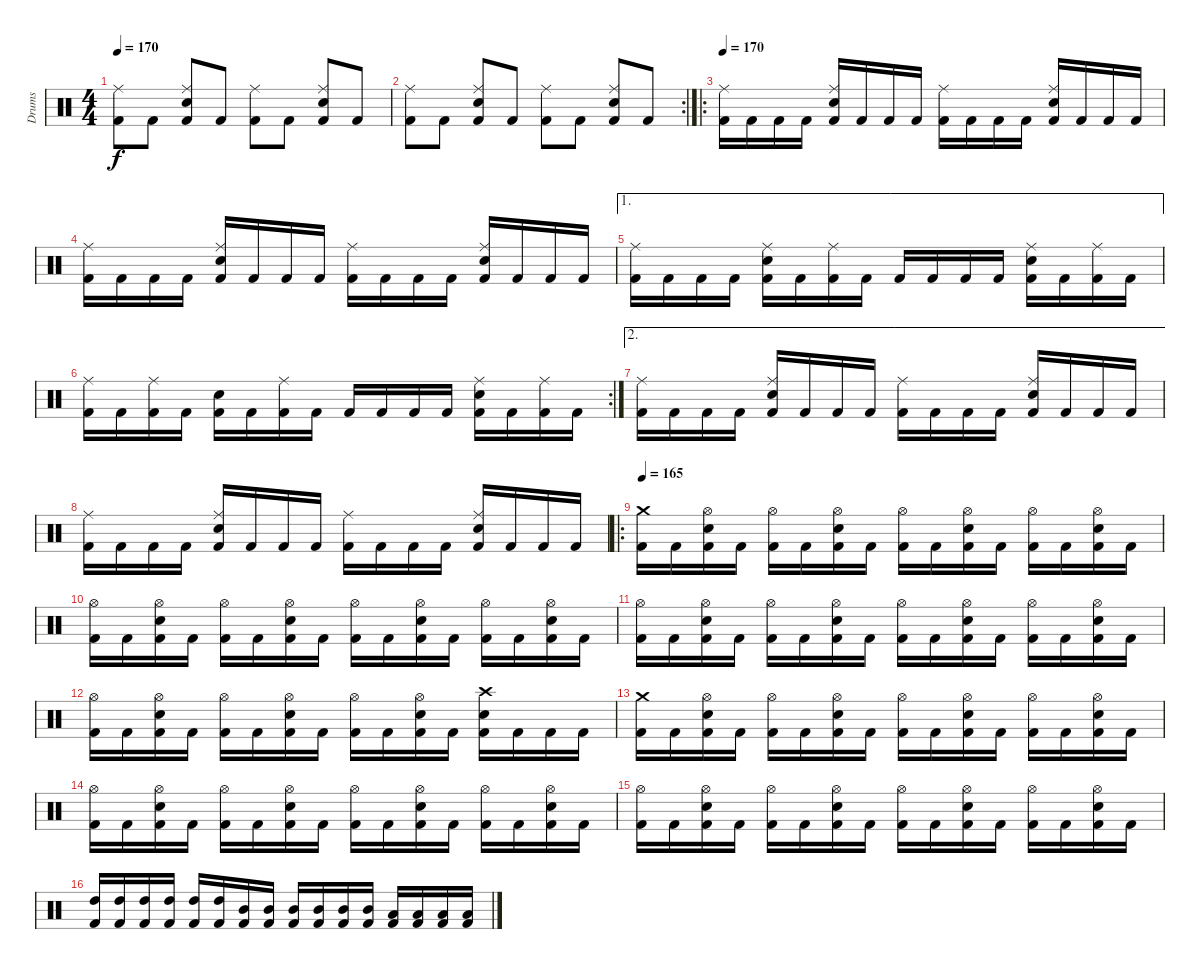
\track ("Drums" "Drums") {instrument percussion}
\staff {score}
\articulation defaults
\ts (4 4)
\tempo 170
\clef neutral
\ks c
("Kick (hit) 2" "Ride (middle)").8{dy f} "Kick (hit) 2".8 ("Kick (hit) 2" "Electric Snare (hit)" "Ride (middle)").8 "Kick (hit) 2".8 ("Kick (hit) 2" "Ride (middle)").8 "Kick (hit) 2".8 ("Kick (hit) 2" "Electric Snare (hit)" "Ride (middle)").8 "Kick (hit) 2".8 |
\rc 2
("Kick (hit) 2" "Ride (middle)").8 "Kick (hit) 2".8 ("Kick (hit) 2" "Electric Snare (hit)" "Ride (middle)").8 "Kick (hit) 2".8 ("Kick (hit) 2" "Ride (middle)").8 "Kick (hit) 2".8 ("Kick (hit) 2" "Electric Snare (hit)" "Ride (middle)").8 "Kick (hit) 2".8 |
\ro
\tempo 170
("Kick (hit) 2" "Ride (middle)").16 "Kick (hit) 2".16 "Kick (hit) 2".16 "Kick (hit) 2".16 ("Kick (hit) 2" "Electric Snare (hit)" "Ride (middle)").16 "Kick (hit) 2".16 "Kick (hit) 2".16 "Kick (hit) 2".16 ("Kick (hit) 2" "Ride (middle)").16 "Kick (hit) 2".16 "Kick (hit) 2".16 "Kick (hit) 2".16 ("Kick (hit) 2" "Electric Snare (hit)" "Ride (middle)").16 "Kick (hit) 2".16 "Kick (hit) 2".16 "Kick (hit) 2".16 |
("Kick (hit) 2" "Ride (middle)").16 "Kick (hit) 2".16 "Kick (hit) 2".16 "Kick (hit) 2".16 ("Kick (hit) 2" "Electric Snare (hit)" "Ride (middle)").16 "Kick (hit) 2".16 "Kick (hit) 2".16 "Kick (hit) 2".16 ("Kick (hit) 2" "Ride (middle)").16 "Kick (hit) 2".16 "Kick (hit) 2".16 "Kick (hit) 2".16 ("Kick (hit) 2" "Electric Snare (hit)" "Ride (middle)").16 "Kick (hit) 2".16 "Kick (hit) 2".16 "Kick (hit) 2".16 |
\ae 1
("Kick (hit) 2" "Ride (middle)").16 "Kick (hit) 2".16 "Kick (hit) 2".16 "Kick (hit) 2".16 ("Kick (hit) 2" "Electric Snare (hit)" "Ride (middle)").16 "Kick (hit) 2".16 ("Kick (hit) 2" "Ride (middle)").16 "Kick (hit) 2".16 "Kick (hit) 2".16 "Kick (hit) 2".16 "Kick (hit) 2".16 "Kick (hit) 2".16 ("Kick (hit) 2" "Electric Snare (hit)" "Ride (middle)").16 "Kick (hit) 2".16 ("Kick (hit) 2" "Ride (middle)").16 "Kick (hit) 2".16 |
\rc 2
("Kick (hit) 2" "Ride (middle)").16 "Kick (hit) 2".16 ("Kick (hit) 2" "Ride (middle)").16 "Kick (hit) 2".16 ("Kick (hit) 2" "Electric Snare (hit)").16 "Kick (hit) 2".16 ("Kick (hit) 2" "Ride (middle)").16 "Kick (hit) 2".16 "Kick (hit) 2".16 "Kick (hit) 2".16 "Kick (hit) 2".16 "Kick (hit) 2".16 ("Kick (hit) 2" "Electric Snare (hit)" "Ride (middle)").16 "Kick (hit) 2".16 ("Kick (hit) 2" "Ride (middle)").16 "Kick (hit) 2".16 |
\ae 2
("Kick (hit) 2" "Ride (middle)").16 "Kick (hit) 2".16 "Kick (hit) 2".16 "Kick (hit) 2".16 ("Kick (hit) 2" "Electric Snare (hit)" "Ride (middle)").16 "Kick (hit) 2".16 "Kick (hit) 2".16 "Kick (hit) 2".16 ("Kick (hit) 2" "Ride (middle)").16 "Kick (hit) 2".16 "Kick (hit) 2".16 "Kick (hit) 2".16 ("Kick (hit) 2" "Electric Snare (hit)" "Ride (middle)").16 "Kick (hit) 2".16 "Kick (hit) 2".16 "Kick (hit) 2".16 |
("Kick (hit) 2" "Ride (middle)").16 "Kick (hit) 2".16 "Kick (hit) 2".16 "Kick (hit) 2".16 ("Kick (hit) 2" "Electric Snare (hit)" "Ride (middle)").16 "Kick (hit) 2".16 "Kick (hit) 2".16 "Kick (hit) 2".16 ("Kick (hit) 2" "Ride (middle)").16 "Kick (hit) 2".16 "Kick (hit) 2".16 "Kick (hit) 2".16 ("Kick (hit) 2" "Electric Snare (hit)" "Ride (middle)").16 "Kick (hit) 2".16 "Kick (hit) 2".16 "Kick (hit) 2".16 |
\ro
\tempo 165
("Kick (hit) 2" "Crash medium (hit)").16 "Kick (hit) 2".16 ("Kick (hit) 2" "Electric Snare (hit)" "Hi-Hat (open)").16 "Kick (hit) 2".16 ("Kick (hit) 2" "Hi-Hat (open)").16 "Kick (hit) 2".16 ("Kick (hit) 2" "Electric Snare (hit)" "Hi-Hat (open)").16 "Kick (hit) 2".16 ("Kick (hit) 2" "Hi-Hat (open)").16 "Kick (hit) 2".16 ("Kick (hit) 2" "Electric Snare (hit)" "Hi-Hat (open)").16 "Kick (hit) 2".16 ("Kick (hit) 2" "Hi-Hat (open)").16 "Kick (hit) 2".16 ("Kick (hit) 2" "Electric Snare (hit)" "Hi-Hat (open)").16 "Kick (hit) 2".16 |
("Kick (hit) 2" "Hi-Hat (open)").16 "Kick (hit) 2".16 ("Kick (hit) 2" "Electric Snare (hit)" "Hi-Hat (open)").16 "Kick (hit) 2".16 ("Kick (hit) 2" "Hi-Hat (open)").16 "Kick (hit) 2".16 ("Kick (hit) 2" "Electric Snare (hit)" "Hi-Hat (open)").16 "Kick (hit) 2".16 ("Kick (hit) 2" "Hi-Hat (open)").16 "Kick (hit) 2".16 ("Kick (hit) 2" "Electric Snare (hit)" "Hi-Hat (open)").16 "Kick (hit) 2".16 ("Kick (hit) 2" "Hi-Hat (open)").16 "Kick (hit) 2".16 ("Kick (hit) 2" "Electric Snare (hit)" "Hi-Hat (open)").16 "Kick (hit) 2".16 |
("Kick (hit) 2" "Hi-Hat (open)").16 "Kick (hit) 2".16 ("Kick (hit) 2" "Electric Snare (hit)" "Hi-Hat (open)").16 "Kick (hit) 2".16 ("Kick (hit) 2" "Hi-Hat (open)").16 "Kick (hit) 2".16 ("Kick (hit) 2" "Electric Snare (hit)" "Hi-Hat (open)").16 "Kick (hit) 2".16 ("Kick (hit) 2" "Hi-Hat (open)").16 "Kick (hit) 2".16 ("Kick (hit) 2" "Electric Snare (hit)" "Hi-Hat (open)").16 "Kick (hit) 2".16 ("Kick (hit) 2" "Hi-Hat (open)").16 "Kick (hit) 2".16 ("Kick (hit) 2" "Electric Snare (hit)" "Hi-Hat (open)").16 "Kick (hit) 2".16 |
("Kick (hit) 2" "Hi-Hat (open)").16 "Kick (hit) 2".16 ("Kick (hit) 2" "Electric Snare (hit)" "Hi-Hat (open)").16 "Kick (hit) 2".16 ("Kick (hit) 2" "Hi-Hat (open)").16 "Kick (hit) 2".16 ("Kick (hit) 2" "Electric Snare (hit)" "Hi-Hat (open)").16 "Kick (hit) 2".16 ("Kick (hit) 2" "Hi-Hat (open)").16 "Kick (hit) 2".16 ("Kick (hit) 2" "Electric Snare (hit)" "Hi-Hat (open)").16 "Kick (hit) 2".16 ("Kick (hit) 2" "Electric Snare (hit)" "Crash high (hit)").16 "Kick (hit) 2".16 "Kick (hit) 2".16 "Kick (hit) 2".16 |
("Kick (hit) 2" "Crash medium (hit)").16 "Kick (hit) 2".16 ("Kick (hit) 2" "Electric Snare (hit)" "Hi-Hat (open)").16 "Kick (hit) 2".16 ("Kick (hit) 2" "Hi-Hat (open)").16 "Kick (hit) 2".16 ("Kick (hit) 2" "Electric Snare (hit)" "Hi-Hat (open)").16 "Kick (hit) 2".16 ("Kick (hit) 2" "Hi-Hat (open)").16 "Kick (hit) 2".16 ("Kick (hit) 2" "Electric Snare (hit)" "Hi-Hat (open)").16 "Kick (hit) 2".16 ("Kick (hit) 2" "Hi-Hat (open)").16 "Kick (hit) 2".16 ("Kick (hit) 2" "Electric Snare (hit)" "Hi-Hat (open)").16 "Kick (hit) 2".16 |
("Kick (hit) 2" "Hi-Hat (open)").16 "Kick (hit) 2".16 ("Kick (hit) 2" "Electric Snare (hit)" "Hi-Hat (open)").16 "Kick (hit) 2".16 ("Kick (hit) 2" "Hi-Hat (open)").16 "Kick (hit) 2".16 ("Kick (hit) 2" "Electric Snare (hit)" "Hi-Hat (open)").16 "Kick (hit) 2".16 ("Kick (hit) 2" "Hi-Hat (open)").16 "Kick (hit) 2".16 ("Kick (hit) 2" "Electric Snare (hit)" "Hi-Hat (open)").16 "Kick (hit) 2".16 ("Kick (hit) 2" "Hi-Hat (open)").16 "Kick (hit) 2".16 ("Kick (hit) 2" "Electric Snare (hit)" "Hi-Hat (open)").16 "Kick (hit) 2".16 |
("Kick (hit) 2" "Hi-Hat (open)").16 "Kick (hit) 2".16 ("Kick (hit) 2" "Electric Snare (hit)" "Hi-Hat (open)").16 "Kick (hit) 2".16 ("Kick (hit) 2" "Hi-Hat (open)").16 "Kick (hit) 2".16 ("Kick (hit) 2" "Electric Snare (hit)" "Hi-Hat (open)").16 "Kick (hit) 2".16 ("Kick (hit) 2" "Hi-Hat (open)").16 "Kick (hit) 2".16 ("Kick (hit) 2" "Electric Snare (hit)" "Hi-Hat (open)").16 "Kick (hit) 2".16 ("Kick (hit) 2" "Hi-Hat (open)").16 "Kick (hit) 2".16 ("Kick (hit) 2" "Electric Snare (hit)" "Hi-Hat (open)").16 "Kick (hit) 2".16 |
("Kick (hit) 2" "High Tom (hit)").16 ("Kick (hit) 2" "High Tom (hit)").16 ("Kick (hit) 2" "High Tom (hit)").16 ("Kick (hit) 2" "High Tom (hit)").16 ("Kick (hit) 2" "High Tom (hit)").16 ("Kick (hit) 2" "High Tom (hit)").16 ("Kick (hit) 2" "Mid Tom (hit)").16 ("Kick (hit) 2" "Mid Tom (hit)").16 ("Kick (hit) 2" "Mid Tom (hit)").16 ("Kick (hit) 2" "Mid Tom (hit)").16 ("Kick (hit) 2" "Mid Tom (hit)").16 ("Kick (hit) 2" "Mid Tom (hit)").16 ("Kick (hit) 2" "Low Tom (hit)").16 ("Kick (hit) 2" "Low Tom (hit)").16 ("Kick (hit) 2" "Low Tom (hit)").16 ("Kick (hit) 2" "Low Tom (hit)").16
